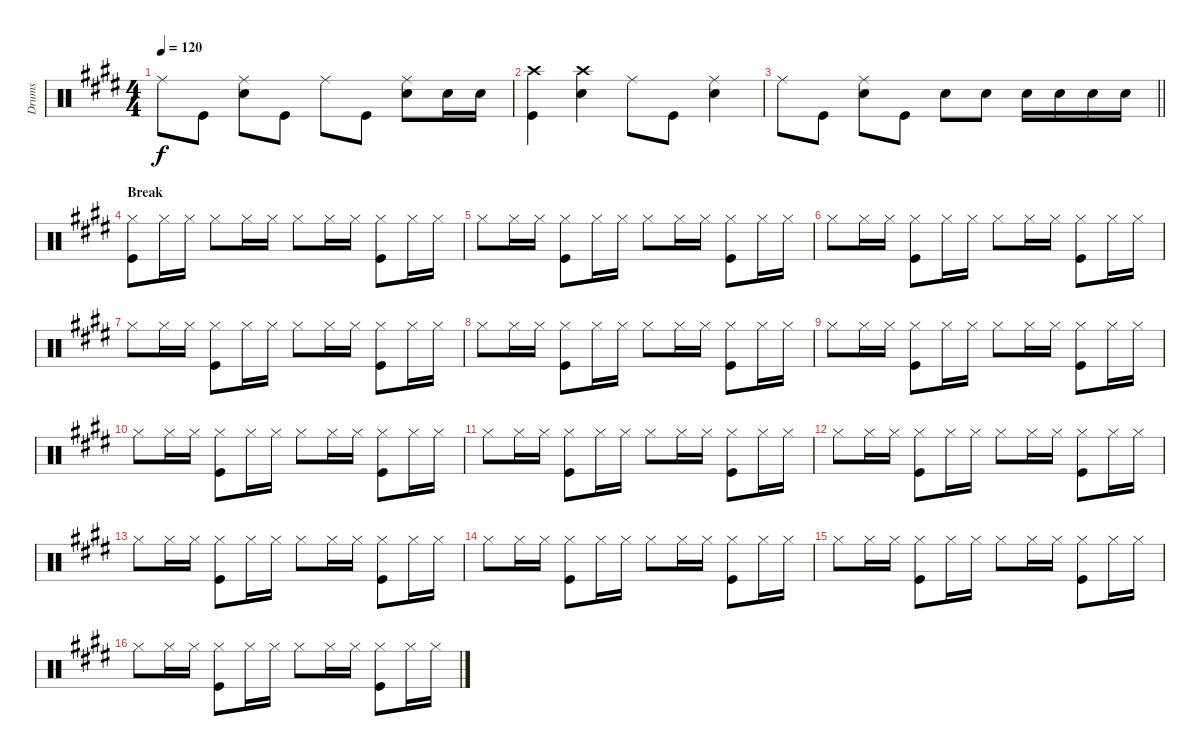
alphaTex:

\track ("Drums" "Drums") {instrument percussion}
\staff {score}
\articulation defaults
\ts (4 4)
\tempo 120
\clef neutral
\ks e "Ride (middle)".8{dy f} "Kick (hit)".8
("Ride (middle)" "Snare (hit) 2").8 "Kick (hit)".8 "Ride (middle)".8 "Kick (hit)".8 ("Ride (middle)" "Snare (hit) 2").8 "Snare (hit) 2".16 "Snare (hit) 2".16 |
("Crash high (hit)" "Kick (hit)").4 ("Crash high (hit)" "Snare (hit) 2").4 "Ride (middle)".8 "Kick (hit)".8 ("Ride (middle)" "Snare (hit) 2").4 |
\barLineRight lightlight "Ride (middle)".8 "Kick (hit)".8
("Ride (middle)" "Snare (hit) 2").8 "Kick (hit)".8 "Snare (hit) 2".8 "Snare (hit) 2".8 "Snare (hit) 2".16 "Snare (hit) 2".16 "Snare (hit) 2".16 "Snare (hit) 2".16 |
\section ("" "Break")
("Hi-Hat (closed)" "Kick (hit)").8 "Hi-Hat (closed)".16 "Hi-Hat (closed)".16 "Hi-Hat (closed)".8 "Hi-Hat (closed)".16 "Hi-Hat (closed)".16 "Hi-Hat (closed)".8 "Hi-Hat (closed)".16 "Hi-Hat (closed)".16 ("Hi-Hat (closed)" "Kick (hit)").8 "Hi-Hat (closed)".16 "Hi-Hat (closed)".16 |
"Hi-Hat (closed)".8 "Hi-Hat (closed)".16 "Hi-Hat (closed)".16 ("Hi-Hat (closed)" "Kick (hit)").8 "Hi-Hat (closed)".16 "Hi-Hat (closed)".16 "Hi-Hat (closed)".8 "Hi-Hat (closed)".16 "Hi-Hat (closed)".16 ("Hi-Hat (closed)" "Kick (hit)").8 "Hi-Hat (closed)".16 "Hi-Hat (closed)".16 |
"Hi-Hat (closed)".8 "Hi-Hat (closed)".16 "Hi-Hat (closed)".16 ("Hi-Hat (closed)" "Kick (hit)").8 "Hi-Hat (closed)".16 "Hi-Hat (closed)".16 "Hi-Hat (closed)".8 "Hi-Hat (closed)".16 "Hi-Hat (closed)".16 ("Hi-Hat (closed)" "Kick (hit)").8 "Hi-Hat (closed)".16 "Hi-Hat (closed)".16 |
"Hi-Hat (closed)".8 "Hi-Hat (closed)".16 "Hi-Hat (closed)".16 ("Hi-Hat (closed)" "Kick (hit)").8 "Hi-Hat (closed)".16 "Hi-Hat (closed)".16 "Hi-Hat (closed)".8 "Hi-Hat (closed)".16 "Hi-Hat (closed)".16 ("Hi-Hat (closed)" "Kick (hit)").8 "Hi-Hat (closed)".16 "Hi-Hat (closed)".16 |
"Hi-Hat (closed)".8 "Hi-Hat (closed)".16 "Hi-Hat (closed)".16 ("Hi-Hat (closed)" "Kick (hit)").8 "Hi-Hat (closed)".16 "Hi-Hat (closed)".16 "Hi-Hat (closed)".8 "Hi-Hat (closed)".16 "Hi-Hat (closed)".16 ("Hi-Hat (closed)" "Kick (hit)").8 "Hi-Hat (closed)".16 "Hi-Hat (closed)".16 |
"Hi-Hat (closed)".8 "Hi-Hat (closed)".16 "Hi-Hat (closed)".16 ("Hi-Hat (closed)" "Kick (hit)").8 "Hi-Hat (closed)".16 "Hi-Hat (closed)".16 "Hi-Hat (closed)".8 "Hi-Hat (closed)".16 "Hi-Hat (closed)".16 ("Hi-Hat (closed)" "Kick (hit)").8 "Hi-Hat (closed)".16 "Hi-Hat (closed)".16 |
"Hi-Hat (closed)".8 "Hi-Hat (closed)".16 "Hi-Hat (closed)".16 ("Hi-Hat (closed)" "Kick (hit)").8 "Hi-Hat (closed)".16 "Hi-Hat (closed)".16 "Hi-Hat (closed)".8 "Hi-Hat (closed)".16 "Hi-Hat (closed)".16 ("Hi-Hat (closed)" "Kick (hit)").8 "Hi-Hat (closed)".16 "Hi-Hat (closed)".16 |
"Hi-Hat (closed)".8 "Hi-Hat (closed)".16 "Hi-Hat (closed)".16 ("Hi-Hat (closed)" "Kick (hit)").8 "Hi-Hat (closed)".16 "Hi-Hat (closed)".16 "Hi-Hat (closed)".8 "Hi-Hat (closed)".16 "Hi-Hat (closed)".16 ("Hi-Hat (closed)" "Kick (hit)").8 "Hi-Hat (closed)".16 "Hi-Hat (closed)".16 |
"Hi-Hat (closed)".8 "Hi-Hat (closed)".16 "Hi-Hat (closed)".16 ("Hi-Hat (closed)" "Kick (hit)").8 "Hi-Hat (closed)".16 "Hi-Hat (closed)".16 "Hi-Hat (closed)".8 "Hi-Hat (closed)".16 "Hi-Hat (closed)".16 ("Hi-Hat (closed)" "Kick (hit)").8 "Hi-Hat (closed)".16 "Hi-Hat (closed)".16 |
"Hi-Hat (closed)".8 "Hi-Hat (closed)".16 "Hi-Hat (closed)".16 ("Hi-Hat (closed)" "Kick (hit)").8 "Hi-Hat (closed)".16 "Hi-Hat (closed)".16 "Hi-Hat (closed)".8 "Hi-Hat (closed)".16 "Hi-Hat (closed)".16 ("Hi-Hat (closed)" "Kick (hit)").8 "Hi-Hat (closed)".16 "Hi-Hat (closed)".16 |
"Hi-Hat (closed)".8 "Hi-Hat (closed)".16 "Hi-Hat (closed)".16 ("Hi-Hat (closed)" "Kick (hit)").8 "Hi-Hat (closed)".16 "Hi-Hat (closed)".16 "Hi-Hat (closed)".8 "Hi-Hat (closed)".16 "Hi-Hat (closed)".16 ("Hi-Hat (closed)" "Kick (hit)").8 "Hi-Hat (closed)".16 "Hi-Hat (closed)".16 |
"Hi-Hat (closed)".8 "Hi-Hat (closed)".16 "Hi-Hat (closed)".16 ("Hi-Hat (closed)" "Kick (hit)").8 "Hi-Hat (closed)".16 "Hi-Hat (closed)".16 "Hi-Hat (closed)".8 "Hi-Hat (closed)".16 "Hi-Hat (closed)".16 ("Hi-Hat (closed)" "Kick (hit)").8 "Hi-Hat (closed)".16 "Hi-Hat (closed)".16 |
"Hi-Hat (closed)".8 "Hi-Hat (closed)".16 "Hi-Hat (closed)".16 ("Hi-Hat (closed)" "Kick (hit)").8 "Hi-Hat (closed)".16 "Hi-Hat (closed)".16 "Hi-Hat (closed)".8 "Hi-Hat (closed)".16 "Hi-Hat (closed)".16 ("Hi-Hat (closed)" "Kick (hit)").8 "Hi-Hat (closed)".16 "Hi-Hat (closed)".16
